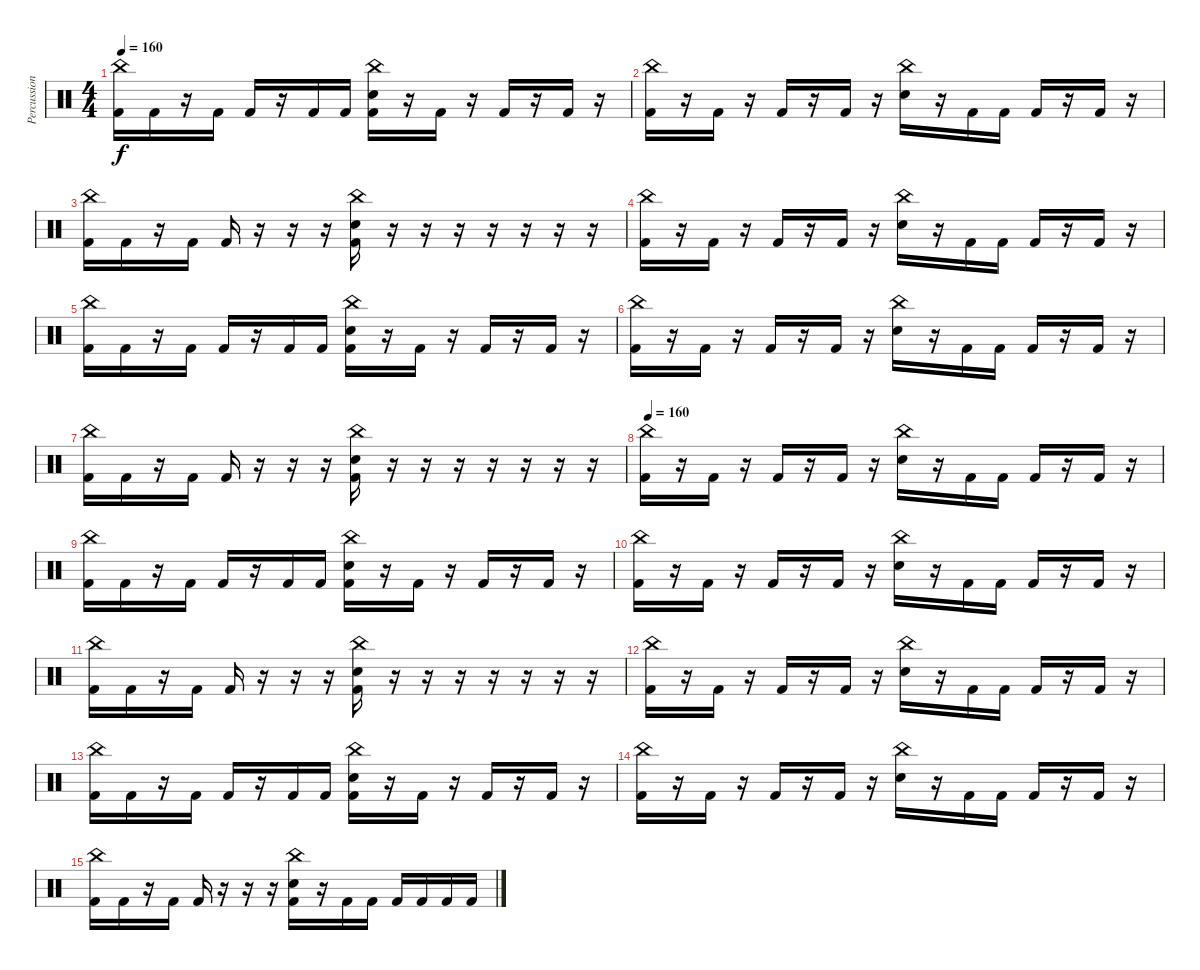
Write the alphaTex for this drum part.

\track ("Percussion" "Percussion") {instrument percussion}
\staff {score}
\articulation defaults
\ts (4 4)
\tempo 160
\clef neutral
\ks c
("China (hit)" "Kick (hit) 2").16{dy f} "Kick (hit) 2".16 r.16 "Kick (hit) 2".16 "Kick (hit) 2".16 r.16 "Kick (hit) 2".16 "Kick (hit) 2".16 ("China (hit)" "Electric Snare (hit)" "Kick (hit) 2").16 r.16 "Kick (hit) 2".16 r.16 "Kick (hit) 2".16 r.16 "Kick (hit) 2".16 r.16 |
("China (hit)" "Kick (hit) 2").16 r.16 "Kick (hit) 2".16 r.16 "Kick (hit) 2".16 r.16 "Kick (hit) 2".16 r.16 ("China (hit)" "Electric Snare (hit)").16 r.16 "Kick (hit) 2".16 "Kick (hit) 2".16 "Kick (hit) 2".16 r.16 "Kick (hit) 2".16 r.16 |
("China (hit)" "Kick (hit) 2").16 "Kick (hit) 2".16 r.16 "Kick (hit) 2".16 "Kick (hit) 2".16 r.16 r.16 r.16 ("China (hit)" "Electric Snare (hit)" "Kick (hit) 2").16 r.16 r.16 r.16 r.16 r.16 r.16 r.16 |
("China (hit)" "Kick (hit) 2").16 r.16 "Kick (hit) 2".16 r.16 "Kick (hit) 2".16 r.16 "Kick (hit) 2".16 r.16 ("China (hit)" "Electric Snare (hit)").16 r.16 "Kick (hit) 2".16 "Kick (hit) 2".16 "Kick (hit) 2".16 r.16 "Kick (hit) 2".16 r.16 |
("China (hit)" "Kick (hit) 2").16 "Kick (hit) 2".16 r.16 "Kick (hit) 2".16 "Kick (hit) 2".16 r.16 "Kick (hit) 2".16 "Kick (hit) 2".16 ("China (hit)" "Electric Snare (hit)" "Kick (hit) 2").16 r.16 "Kick (hit) 2".16 r.16 "Kick (hit) 2".16 r.16 "Kick (hit) 2".16 r.16 |
("China (hit)" "Kick (hit) 2").16 r.16 "Kick (hit) 2".16 r.16 "Kick (hit) 2".16 r.16 "Kick (hit) 2".16 r.16 ("China (hit)" "Electric Snare (hit)").16 r.16 "Kick (hit) 2".16 "Kick (hit) 2".16 "Kick (hit) 2".16 r.16 "Kick (hit) 2".16 r.16 |
("China (hit)" "Kick (hit) 2").16 "Kick (hit) 2".16 r.16 "Kick (hit) 2".16 "Kick (hit) 2".16 r.16 r.16 r.16 ("China (hit)" "Electric Snare (hit)" "Kick (hit) 2").16 r.16 r.16 r.16 r.16 r.16 r.16 r.16 |
\tempo 160
("China (hit)" "Kick (hit) 2").16 r.16 "Kick (hit) 2".16 r.16 "Kick (hit) 2".16 r.16 "Kick (hit) 2".16 r.16 ("China (hit)" "Electric Snare (hit)").16 r.16 "Kick (hit) 2".16 "Kick (hit) 2".16 "Kick (hit) 2".16 r.16 "Kick (hit) 2".16 r.16 |
("China (hit)" "Kick (hit) 2").16 "Kick (hit) 2".16 r.16 "Kick (hit) 2".16 "Kick (hit) 2".16 r.16 "Kick (hit) 2".16 "Kick (hit) 2".16 ("China (hit)" "Electric Snare (hit)" "Kick (hit) 2").16 r.16 "Kick (hit) 2".16 r.16 "Kick (hit) 2".16 r.16 "Kick (hit) 2".16 r.16 |
("China (hit)" "Kick (hit) 2").16 r.16 "Kick (hit) 2".16 r.16 "Kick (hit) 2".16 r.16 "Kick (hit) 2".16 r.16 ("China (hit)" "Electric Snare (hit)").16 r.16 "Kick (hit) 2".16 "Kick (hit) 2".16 "Kick (hit) 2".16 r.16 "Kick (hit) 2".16 r.16 |
("China (hit)" "Kick (hit) 2").16 "Kick (hit) 2".16 r.16 "Kick (hit) 2".16 "Kick (hit) 2".16 r.16 r.16 r.16 ("China (hit)" "Electric Snare (hit)" "Kick (hit) 2").16 r.16 r.16 r.16 r.16 r.16 r.16 r.16 |
("China (hit)" "Kick (hit) 2").16 r.16 "Kick (hit) 2".16 r.16 "Kick (hit) 2".16 r.16 "Kick (hit) 2".16 r.16 ("China (hit)" "Electric Snare (hit)").16 r.16 "Kick (hit) 2".16 "Kick (hit) 2".16 "Kick (hit) 2".16 r.16 "Kick (hit) 2".16 r.16 |
("China (hit)" "Kick (hit) 2").16 "Kick (hit) 2".16 r.16 "Kick (hit) 2".16 "Kick (hit) 2".16 r.16 "Kick (hit) 2".16 "Kick (hit) 2".16 ("China (hit)" "Electric Snare (hit)" "Kick (hit) 2").16 r.16 "Kick (hit) 2".16 r.16 "Kick (hit) 2".16 r.16 "Kick (hit) 2".16 r.16 |
("China (hit)" "Kick (hit) 2").16 r.16 "Kick (hit) 2".16 r.16 "Kick (hit) 2".16 r.16 "Kick (hit) 2".16 r.16 ("China (hit)" "Electric Snare (hit)").16 r.16 "Kick (hit) 2".16 "Kick (hit) 2".16 "Kick (hit) 2".16 r.16 "Kick (hit) 2".16 r.16 |
("China (hit)" "Kick (hit) 2").16 "Kick (hit) 2".16 r.16 "Kick (hit) 2".16 "Kick (hit) 2".16 r.16 r.16 r.16 ("China (hit)" "Electric Snare (hit)" "Kick (hit) 2").16 r.16 "Kick (hit) 2".16 "Kick (hit) 2".16 "Kick (hit) 2".16 "Kick (hit) 2".16 "Kick (hit) 2".16 "Kick (hit) 2".16
